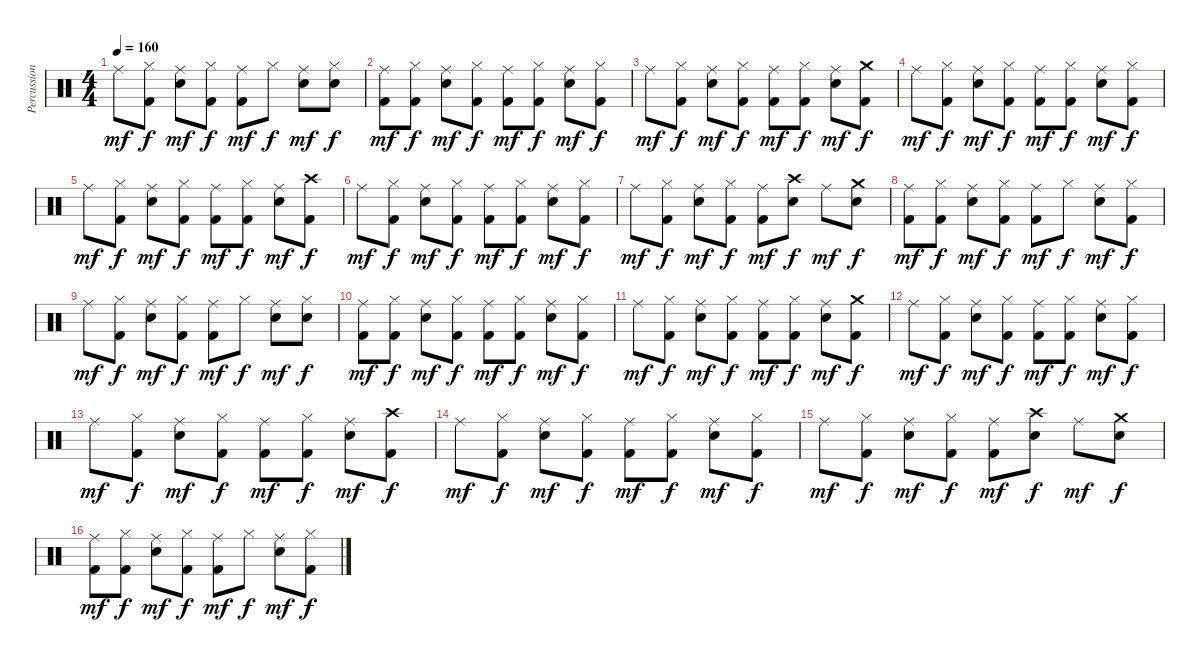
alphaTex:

\track ("Percussions" "Percussion") {instrument percussion}
\staff {score}
\articulation defaults
\ts (4 4)
\tempo 160
\clef neutral
\ks c "Ride (middle)".8{dy mf}
("Hi-Hat (closed)" "Kick (hit) 2").8{dy f} ("Ride (middle)" "Electric Snare (hit)").8{dy mf} ("Hi-Hat (closed)" "Kick (hit) 2").8{dy f} ("Ride (middle)" "Kick (hit) 2").8{dy mf} "Hi-Hat (closed)".8{dy f} ("Ride (middle)" "Electric Snare (hit)").8{dy mf} ("Hi-Hat (closed)" "Electric Snare (hit)").8{dy f} |
("Ride (middle)" "Kick (hit) 2").8{dy mf} ("Hi-Hat (closed)" "Kick (hit) 2").8{dy f} ("Ride (middle)" "Electric Snare (hit)").8{dy mf} ("Hi-Hat (closed)" "Kick (hit) 2").8{dy f} ("Ride (middle)" "Kick (hit) 2").8{dy mf} ("Hi-Hat (closed)" "Kick (hit) 2").8{dy f} ("Ride (middle)" "Electric Snare (hit)").8{dy mf} ("Hi-Hat (closed)" "Kick (hit) 2").8{dy f} |
"Ride (middle)".8{dy mf} ("Hi-Hat (closed)" "Kick (hit) 2").8{dy f} ("Ride (middle)" "Electric Snare (hit)").8{dy mf} ("Hi-Hat (closed)" "Kick (hit) 2").8{dy f} ("Ride (middle)" "Kick (hit) 2").8{dy mf} ("Hi-Hat (closed)" "Kick (hit) 2").8{dy f} ("Ride (middle)" "Electric Snare (hit)").8{dy mf} ("Crash medium (hit)" "Kick (hit) 2").8{dy f} |
"Ride (middle)".8{dy mf} ("Hi-Hat (closed)" "Kick (hit) 2").8{dy f} ("Ride (middle)" "Electric Snare (hit)").8{dy mf} ("Hi-Hat (closed)" "Kick (hit) 2").8{dy f} ("Ride (middle)" "Kick (hit) 2").8{dy mf} ("Hi-Hat (closed)" "Kick (hit) 2").8{dy f} ("Ride (middle)" "Electric Snare (hit)").8{dy mf} ("Hi-Hat (closed)" "Kick (hit) 2").8{dy f} |
"Ride (middle)".8{dy mf} ("Hi-Hat (closed)" "Kick (hit) 2").8{dy f} ("Ride (middle)" "Electric Snare (hit)").8{dy mf} ("Hi-Hat (closed)" "Kick (hit) 2").8{dy f} ("Ride (middle)" "Kick (hit) 2").8{dy mf} ("Hi-Hat (closed)" "Kick (hit) 2").8{dy f} ("Ride (middle)" "Electric Snare (hit)").8{dy mf} ("Crash high (hit)" "Kick (hit) 2").8{dy f} |
"Ride (middle)".8{dy mf} ("Hi-Hat (closed)" "Kick (hit) 2").8{dy f} ("Ride (middle)" "Electric Snare (hit)").8{dy mf} ("Hi-Hat (closed)" "Kick (hit) 2").8{dy f} ("Ride (middle)" "Kick (hit) 2").8{dy mf} ("Hi-Hat (closed)" "Kick (hit) 2").8{dy f} ("Ride (middle)" "Electric Snare (hit)").8{dy mf} ("Hi-Hat (closed)" "Kick (hit) 2").8{dy f} |
"Ride (middle)".8{dy mf} ("Hi-Hat (closed)" "Kick (hit) 2").8{dy f} ("Ride (middle)" "Electric Snare (hit)").8{dy mf} ("Hi-Hat (closed)" "Kick (hit) 2").8{dy f} ("Ride (middle)" "Kick (hit) 2").8{dy mf} ("Crash high (hit)" "Electric Snare (hit)").8{dy f} "Ride (middle)".8{dy mf} ("Crash medium (hit)" "Electric Snare (hit)").8{dy f} |
("Ride (middle)" "Kick (hit) 2").8{dy mf} ("Hi-Hat (closed)" "Kick (hit) 2").8{dy f} ("Ride (middle)" "Electric Snare (hit)").8{dy mf} ("Hi-Hat (closed)" "Kick (hit) 2").8{dy f} ("Ride (middle)" "Kick (hit) 2").8{dy mf} "Hi-Hat (closed)".8{dy f} ("Ride (middle)" "Electric Snare (hit)").8{dy mf} ("Hi-Hat (closed)" "Kick (hit) 2").8{dy f} |
"Ride (middle)".8{dy mf} ("Hi-Hat (closed)" "Kick (hit) 2").8{dy f} ("Ride (middle)" "Electric Snare (hit)").8{dy mf} ("Hi-Hat (closed)" "Kick (hit) 2").8{dy f} ("Ride (middle)" "Kick (hit) 2").8{dy mf} "Hi-Hat (closed)".8{dy f} ("Ride (middle)" "Electric Snare (hit)").8{dy mf} ("Hi-Hat (closed)" "Electric Snare (hit)").8{dy f} |
("Ride (middle)" "Kick (hit) 2").8{dy mf} ("Hi-Hat (closed)" "Kick (hit) 2").8{dy f} ("Ride (middle)" "Electric Snare (hit)").8{dy mf} ("Hi-Hat (closed)" "Kick (hit) 2").8{dy f} ("Ride (middle)" "Kick (hit) 2").8{dy mf} ("Hi-Hat (closed)" "Kick (hit) 2").8{dy f} ("Ride (middle)" "Electric Snare (hit)").8{dy mf} ("Hi-Hat (closed)" "Kick (hit) 2").8{dy f} |
"Ride (middle)".8{dy mf} ("Hi-Hat (closed)" "Kick (hit) 2").8{dy f} ("Ride (middle)" "Electric Snare (hit)").8{dy mf} ("Hi-Hat (closed)" "Kick (hit) 2").8{dy f} ("Ride (middle)" "Kick (hit) 2").8{dy mf} ("Hi-Hat (closed)" "Kick (hit) 2").8{dy f} ("Ride (middle)" "Electric Snare (hit)").8{dy mf} ("Crash medium (hit)" "Kick (hit) 2").8{dy f} |
"Ride (middle)".8{dy mf} ("Hi-Hat (closed)" "Kick (hit) 2").8{dy f} ("Ride (middle)" "Electric Snare (hit)").8{dy mf} ("Hi-Hat (closed)" "Kick (hit) 2").8{dy f} ("Ride (middle)" "Kick (hit) 2").8{dy mf} ("Hi-Hat (closed)" "Kick (hit) 2").8{dy f} ("Ride (middle)" "Electric Snare (hit)").8{dy mf} ("Hi-Hat (closed)" "Kick (hit) 2").8{dy f} |
"Ride (middle)".8{dy mf} ("Hi-Hat (closed)" "Kick (hit) 2").8{dy f} ("Ride (middle)" "Electric Snare (hit)").8{dy mf} ("Hi-Hat (closed)" "Kick (hit) 2").8{dy f} ("Ride (middle)" "Kick (hit) 2").8{dy mf} ("Hi-Hat (closed)" "Kick (hit) 2").8{dy f} ("Ride (middle)" "Electric Snare (hit)").8{dy mf} ("Crash high (hit)" "Kick (hit) 2").8{dy f} |
"Ride (middle)".8{dy mf} ("Hi-Hat (closed)" "Kick (hit) 2").8{dy f} ("Ride (middle)" "Electric Snare (hit)").8{dy mf} ("Hi-Hat (closed)" "Kick (hit) 2").8{dy f} ("Ride (middle)" "Kick (hit) 2").8{dy mf} ("Hi-Hat (closed)" "Kick (hit) 2").8{dy f} ("Ride (middle)" "Electric Snare (hit)").8{dy mf} ("Hi-Hat (closed)" "Kick (hit) 2").8{dy f} |
"Ride (middle)".8{dy mf} ("Hi-Hat (closed)" "Kick (hit) 2").8{dy f} ("Ride (middle)" "Electric Snare (hit)").8{dy mf} ("Hi-Hat (closed)" "Kick (hit) 2").8{dy f} ("Ride (middle)" "Kick (hit) 2").8{dy mf} ("Crash high (hit)" "Electric Snare (hit)").8{dy f} "Ride (middle)".8{dy mf} ("Crash medium (hit)" "Electric Snare (hit)").8{dy f} |
("Ride (middle)" "Kick (hit) 2").8{dy mf} ("Hi-Hat (closed)" "Kick (hit) 2").8{dy f} ("Ride (middle)" "Electric Snare (hit)").8{dy mf} ("Hi-Hat (closed)" "Kick (hit) 2").8{dy f} ("Ride (middle)" "Kick (hit) 2").8{dy mf} "Hi-Hat (closed)".8{dy f} ("Ride (middle)" "Electric Snare (hit)").8{dy mf} ("Hi-Hat (closed)" "Kick (hit) 2").8{dy f}
